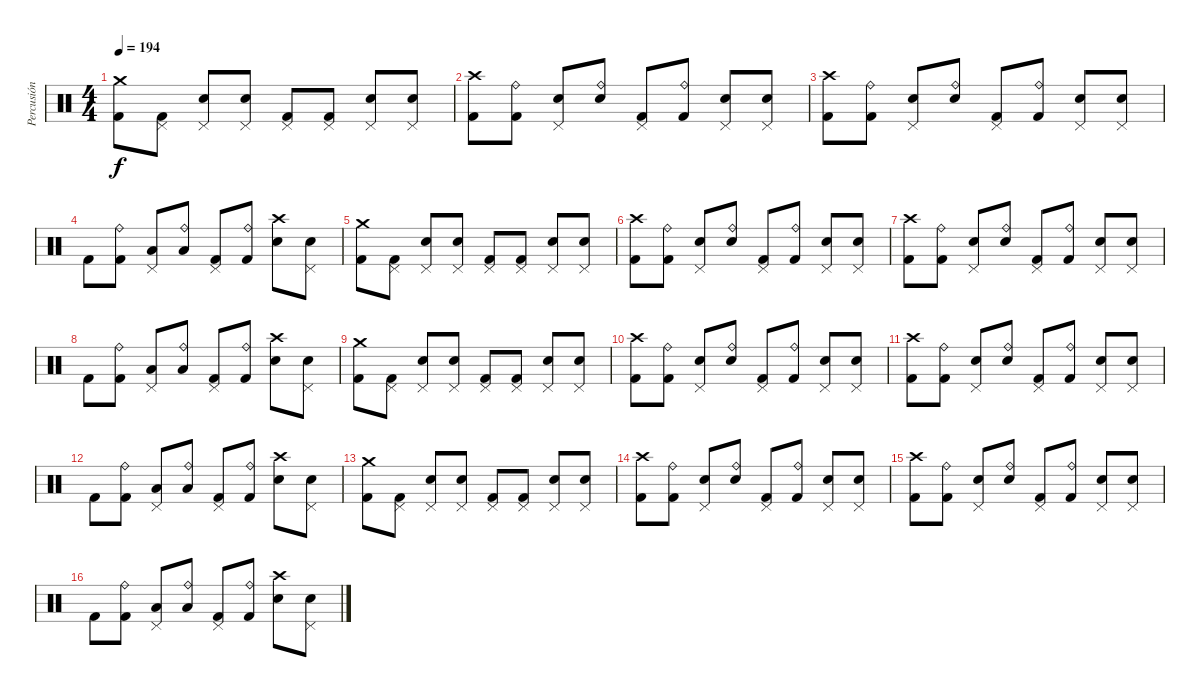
\track ("Percusión" "Percusión") {instrument percussion}
\staff {score}
\articulation defaults
\ts (4 4)
\tempo 194
\clef neutral
\ks c
("Crash medium (hit)" "Kick (hit) 2").8{dy f} ("Pedal Hi-Hat (hit)" "Kick (hit) 2").8 ("Pedal Hi-Hat (hit)" "Snare (hit) 2").8 ("Pedal Hi-Hat (hit)" "Snare (hit) 2").8 ("Pedal Hi-Hat (hit)" "Kick (hit) 2").8 ("Pedal Hi-Hat (hit)" "Kick (hit) 2").8 ("Pedal Hi-Hat (hit)" "Snare (hit) 2").8 ("Pedal Hi-Hat (hit)" "Snare (hit) 2").8 |
("Crash high (hit)" "Kick (hit) 2").8 ("Ride (bell)" "Kick (hit) 2").8 ("Pedal Hi-Hat (hit)" "Snare (hit) 2").8 ("Ride (bell)" "Snare (hit) 2").8 ("Pedal Hi-Hat (hit)" "Kick (hit) 2").8 ("Ride (bell)" "Kick (hit) 2").8 ("Pedal Hi-Hat (hit)" "Snare (hit) 2").8 ("Pedal Hi-Hat (hit)" "Snare (hit) 2").8 |
("Crash high (hit)" "Kick (hit) 2").8 ("Ride (bell)" "Kick (hit) 2").8 ("Pedal Hi-Hat (hit)" "Snare (hit) 2").8 ("Ride (bell)" "Snare (hit) 2").8 ("Pedal Hi-Hat (hit)" "Kick (hit) 2").8 ("Ride (bell)" "Kick (hit) 2").8 ("Pedal Hi-Hat (hit)" "Snare (hit) 2").8 ("Pedal Hi-Hat (hit)" "Snare (hit) 2").8 |
"Kick (hit) 2".8 ("Ride (bell)" "Kick (hit) 2").8 ("Pedal Hi-Hat (hit)" "Low Floor Tom (hit)").8 ("Ride (bell)" "Low Floor Tom (hit)").8 ("Pedal Hi-Hat (hit)" "Kick (hit) 2").8 ("Ride (bell)" "Kick (hit) 2").8 ("Crash high (hit)" "Snare (hit) 2").8 ("Pedal Hi-Hat (hit)" "Snare (hit) 2").8 |
("Crash medium (hit)" "Kick (hit) 2").8 ("Pedal Hi-Hat (hit)" "Kick (hit) 2").8 ("Pedal Hi-Hat (hit)" "Snare (hit) 2").8 ("Pedal Hi-Hat (hit)" "Snare (hit) 2").8 ("Pedal Hi-Hat (hit)" "Kick (hit) 2").8 ("Pedal Hi-Hat (hit)" "Kick (hit) 2").8 ("Pedal Hi-Hat (hit)" "Snare (hit) 2").8 ("Pedal Hi-Hat (hit)" "Snare (hit) 2").8 |
("Crash high (hit)" "Kick (hit) 2").8 ("Ride (bell)" "Kick (hit) 2").8 ("Pedal Hi-Hat (hit)" "Snare (hit) 2").8 ("Ride (bell)" "Snare (hit) 2").8 ("Pedal Hi-Hat (hit)" "Kick (hit) 2").8 ("Ride (bell)" "Kick (hit) 2").8 ("Pedal Hi-Hat (hit)" "Snare (hit) 2").8 ("Pedal Hi-Hat (hit)" "Snare (hit) 2").8 |
("Crash high (hit)" "Kick (hit) 2").8 ("Ride (bell)" "Kick (hit) 2").8 ("Pedal Hi-Hat (hit)" "Snare (hit) 2").8 ("Ride (bell)" "Snare (hit) 2").8 ("Pedal Hi-Hat (hit)" "Kick (hit) 2").8 ("Ride (bell)" "Kick (hit) 2").8 ("Pedal Hi-Hat (hit)" "Snare (hit) 2").8 ("Pedal Hi-Hat (hit)" "Snare (hit) 2").8 |
"Kick (hit) 2".8 ("Ride (bell)" "Kick (hit) 2").8 ("Pedal Hi-Hat (hit)" "Low Floor Tom (hit)").8 ("Ride (bell)" "Low Floor Tom (hit)").8 ("Pedal Hi-Hat (hit)" "Kick (hit) 2").8 ("Ride (bell)" "Kick (hit) 2").8 ("Crash high (hit)" "Snare (hit) 2").8 ("Pedal Hi-Hat (hit)" "Snare (hit) 2").8 |
("Crash medium (hit)" "Kick (hit) 2").8 ("Pedal Hi-Hat (hit)" "Kick (hit) 2").8 ("Pedal Hi-Hat (hit)" "Snare (hit) 2").8 ("Pedal Hi-Hat (hit)" "Snare (hit) 2").8 ("Pedal Hi-Hat (hit)" "Kick (hit) 2").8 ("Pedal Hi-Hat (hit)" "Kick (hit) 2").8 ("Pedal Hi-Hat (hit)" "Snare (hit) 2").8 ("Pedal Hi-Hat (hit)" "Snare (hit) 2").8 |
("Crash high (hit)" "Kick (hit) 2").8 ("Ride (bell)" "Kick (hit) 2").8 ("Pedal Hi-Hat (hit)" "Snare (hit) 2").8 ("Ride (bell)" "Snare (hit) 2").8 ("Pedal Hi-Hat (hit)" "Kick (hit) 2").8 ("Ride (bell)" "Kick (hit) 2").8 ("Pedal Hi-Hat (hit)" "Snare (hit) 2").8 ("Pedal Hi-Hat (hit)" "Snare (hit) 2").8 |
("Crash high (hit)" "Kick (hit) 2").8 ("Ride (bell)" "Kick (hit) 2").8 ("Pedal Hi-Hat (hit)" "Snare (hit) 2").8 ("Ride (bell)" "Snare (hit) 2").8 ("Pedal Hi-Hat (hit)" "Kick (hit) 2").8 ("Ride (bell)" "Kick (hit) 2").8 ("Pedal Hi-Hat (hit)" "Snare (hit) 2").8 ("Pedal Hi-Hat (hit)" "Snare (hit) 2").8 |
"Kick (hit) 2".8 ("Ride (bell)" "Kick (hit) 2").8 ("Pedal Hi-Hat (hit)" "Low Floor Tom (hit)").8 ("Ride (bell)" "Low Floor Tom (hit)").8 ("Pedal Hi-Hat (hit)" "Kick (hit) 2").8 ("Ride (bell)" "Kick (hit) 2").8 ("Crash high (hit)" "Snare (hit) 2").8 ("Pedal Hi-Hat (hit)" "Snare (hit) 2").8 |
("Crash medium (hit)" "Kick (hit) 2").8 ("Pedal Hi-Hat (hit)" "Kick (hit) 2").8 ("Pedal Hi-Hat (hit)" "Snare (hit) 2").8 ("Pedal Hi-Hat (hit)" "Snare (hit) 2").8 ("Pedal Hi-Hat (hit)" "Kick (hit) 2").8 ("Pedal Hi-Hat (hit)" "Kick (hit) 2").8 ("Pedal Hi-Hat (hit)" "Snare (hit) 2").8 ("Pedal Hi-Hat (hit)" "Snare (hit) 2").8 |
("Crash high (hit)" "Kick (hit) 2").8 ("Ride (bell)" "Kick (hit) 2").8 ("Pedal Hi-Hat (hit)" "Snare (hit) 2").8 ("Ride (bell)" "Snare (hit) 2").8 ("Pedal Hi-Hat (hit)" "Kick (hit) 2").8 ("Ride (bell)" "Kick (hit) 2").8 ("Pedal Hi-Hat (hit)" "Snare (hit) 2").8 ("Pedal Hi-Hat (hit)" "Snare (hit) 2").8 |
("Crash high (hit)" "Kick (hit) 2").8 ("Ride (bell)" "Kick (hit) 2").8 ("Pedal Hi-Hat (hit)" "Snare (hit) 2").8 ("Ride (bell)" "Snare (hit) 2").8 ("Pedal Hi-Hat (hit)" "Kick (hit) 2").8 ("Ride (bell)" "Kick (hit) 2").8 ("Pedal Hi-Hat (hit)" "Snare (hit) 2").8 ("Pedal Hi-Hat (hit)" "Snare (hit) 2").8 |
"Kick (hit) 2".8 ("Ride (bell)" "Kick (hit) 2").8 ("Pedal Hi-Hat (hit)" "Low Floor Tom (hit)").8 ("Ride (bell)" "Low Floor Tom (hit)").8 ("Pedal Hi-Hat (hit)" "Kick (hit) 2").8 ("Ride (bell)" "Kick (hit) 2").8 ("Crash high (hit)" "Snare (hit) 2").8 ("Pedal Hi-Hat (hit)" "Snare (hit) 2").8
